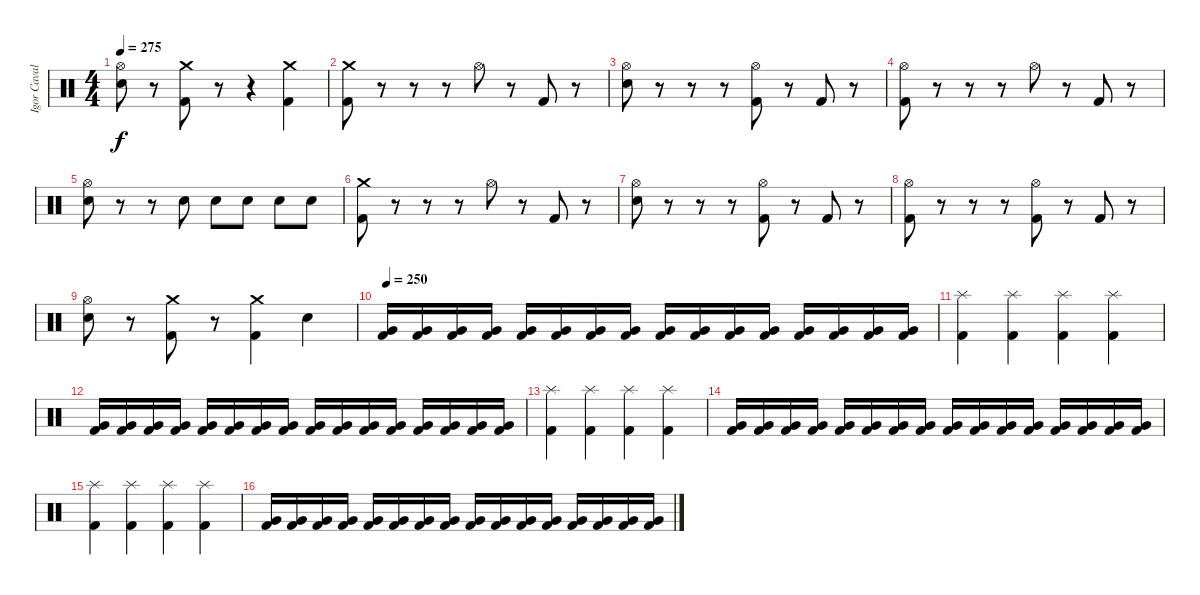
\track ("Igor Cavalera" "Igor Caval") {instrument percussion}
\staff {score}
\articulation defaults
\ts (4 4)
\tempo 275
\clef neutral
\ks c
("Electric Snare (hit)" "Hi-Hat (open)").8{dy f} r.8 ("Kick (hit) 2" "Crash medium (hit)").8 r.8 r.4 ("Crash medium (hit)" "Kick (hit) 2").4 |
("Kick (hit) 2" "Crash medium (hit)").8 r.8 r.8 r.8 "Hi-Hat (open)".8 r.8 "Kick (hit) 2".8 r.8 |
("Electric Snare (hit)" "Hi-Hat (open)").8 r.8 r.8 r.8 ("Kick (hit) 2" "Hi-Hat (open)").8 r.8 "Kick (hit) 2".8 r.8 |
("Kick (hit) 2" "Hi-Hat (open)").8 r.8 r.8 r.8 "Hi-Hat (open)".8 r.8 "Kick (hit) 2".8 r.8 |
("Electric Snare (hit)" "Hi-Hat (open)").8 r.8 r.8 "Electric Snare (hit)".8 "Electric Snare (hit)".8 "Electric Snare (hit)".8 "Electric Snare (hit)".8 "Electric Snare (hit)".8 |
("Kick (hit) 2" "Crash medium (hit)").8 r.8 r.8 r.8 "Hi-Hat (open)".8 r.8 "Kick (hit) 2".8 r.8 |
("Electric Snare (hit)" "Hi-Hat (open)").8 r.8 r.8 r.8 ("Kick (hit) 2" "Hi-Hat (open)").8 r.8 "Kick (hit) 2".8 r.8 |
("Kick (hit) 2" "Hi-Hat (open)").8 r.8 r.8 r.8 ("Kick (hit) 2" "Hi-Hat (open)").8 r.8 "Kick (hit) 2".8 r.8 |
("Electric Snare (hit)" "Hi-Hat (open)").8 r.8 ("Kick (hit) 2" "Crash medium (hit)").8 r.8 ("Crash medium (hit)" "Kick (hit) 2").4 "Electric Snare (hit)".4 |
\tempo 250
("Kick (hit) 2" "Very Low Tom (hit)").16 ("Kick (hit) 2" "Very Low Tom (hit)").16 ("Kick (hit) 2" "Very Low Tom (hit)").16 ("Kick (hit) 2" "Very Low Tom (hit)").16 ("Kick (hit) 2" "Very Low Tom (hit)").16 ("Kick (hit) 2" "Very Low Tom (hit)").16 ("Kick (hit) 2" "Very Low Tom (hit)").16 ("Kick (hit) 2" "Very Low Tom (hit)").16 ("Kick (hit) 2" "Very Low Tom (hit)").16 ("Kick (hit) 2" "Very Low Tom (hit)").16 ("Kick (hit) 2" "Very Low Tom (hit)").16 ("Kick (hit) 2" "Very Low Tom (hit)").16 ("Kick (hit) 2" "Very Low Tom (hit)").16 ("Kick (hit) 2" "Very Low Tom (hit)").16 ("Kick (hit) 2" "Very Low Tom (hit)").16 ("Kick (hit) 2" "Very Low Tom (hit)").16 |
("Splash (hit)" "Kick (hit) 2").4 ("Splash (hit)" "Kick (hit) 2").4 ("Splash (hit)" "Kick (hit) 2").4 ("Splash (hit)" "Kick (hit) 2").4 |
("Kick (hit) 2" "Very Low Tom (hit)").16 ("Kick (hit) 2" "Very Low Tom (hit)").16 ("Kick (hit) 2" "Very Low Tom (hit)").16 ("Kick (hit) 2" "Very Low Tom (hit)").16 ("Kick (hit) 2" "Very Low Tom (hit)").16 ("Kick (hit) 2" "Very Low Tom (hit)").16 ("Kick (hit) 2" "Very Low Tom (hit)").16 ("Kick (hit) 2" "Very Low Tom (hit)").16 ("Kick (hit) 2" "Very Low Tom (hit)").16 ("Kick (hit) 2" "Very Low Tom (hit)").16 ("Kick (hit) 2" "Very Low Tom (hit)").16 ("Kick (hit) 2" "Very Low Tom (hit)").16 ("Kick (hit) 2" "Very Low Tom (hit)").16 ("Kick (hit) 2" "Very Low Tom (hit)").16 ("Kick (hit) 2" "Very Low Tom (hit)").16 ("Kick (hit) 2" "Very Low Tom (hit)").16 |
("Splash (hit)" "Kick (hit) 2").4 ("Splash (hit)" "Kick (hit) 2").4 ("Splash (hit)" "Kick (hit) 2").4 ("Splash (hit)" "Kick (hit) 2").4 |
("Kick (hit) 2" "Very Low Tom (hit)").16 ("Kick (hit) 2" "Very Low Tom (hit)").16 ("Kick (hit) 2" "Very Low Tom (hit)").16 ("Kick (hit) 2" "Very Low Tom (hit)").16 ("Kick (hit) 2" "Very Low Tom (hit)").16 ("Kick (hit) 2" "Very Low Tom (hit)").16 ("Kick (hit) 2" "Very Low Tom (hit)").16 ("Kick (hit) 2" "Very Low Tom (hit)").16 ("Kick (hit) 2" "Very Low Tom (hit)").16 ("Kick (hit) 2" "Very Low Tom (hit)").16 ("Kick (hit) 2" "Very Low Tom (hit)").16 ("Kick (hit) 2" "Very Low Tom (hit)").16 ("Kick (hit) 2" "Very Low Tom (hit)").16 ("Kick (hit) 2" "Very Low Tom (hit)").16 ("Kick (hit) 2" "Very Low Tom (hit)").16 ("Kick (hit) 2" "Very Low Tom (hit)").16 |
("Splash (hit)" "Kick (hit) 2").4 ("Splash (hit)" "Kick (hit) 2").4 ("Splash (hit)" "Kick (hit) 2").4 ("Splash (hit)" "Kick (hit) 2").4 |
("Kick (hit) 2" "Very Low Tom (hit)").16 ("Kick (hit) 2" "Very Low Tom (hit)").16 ("Kick (hit) 2" "Very Low Tom (hit)").16 ("Kick (hit) 2" "Very Low Tom (hit)").16 ("Kick (hit) 2" "Very Low Tom (hit)").16 ("Kick (hit) 2" "Very Low Tom (hit)").16 ("Kick (hit) 2" "Very Low Tom (hit)").16 ("Kick (hit) 2" "Very Low Tom (hit)").16 ("Kick (hit) 2" "Very Low Tom (hit)").16 ("Kick (hit) 2" "Very Low Tom (hit)").16 ("Kick (hit) 2" "Very Low Tom (hit)").16 ("Kick (hit) 2" "Very Low Tom (hit)").16 ("Kick (hit) 2" "Very Low Tom (hit)").16 ("Kick (hit) 2" "Very Low Tom (hit)").16 ("Kick (hit) 2" "Very Low Tom (hit)").16 ("Kick (hit) 2" "Very Low Tom (hit)").16
